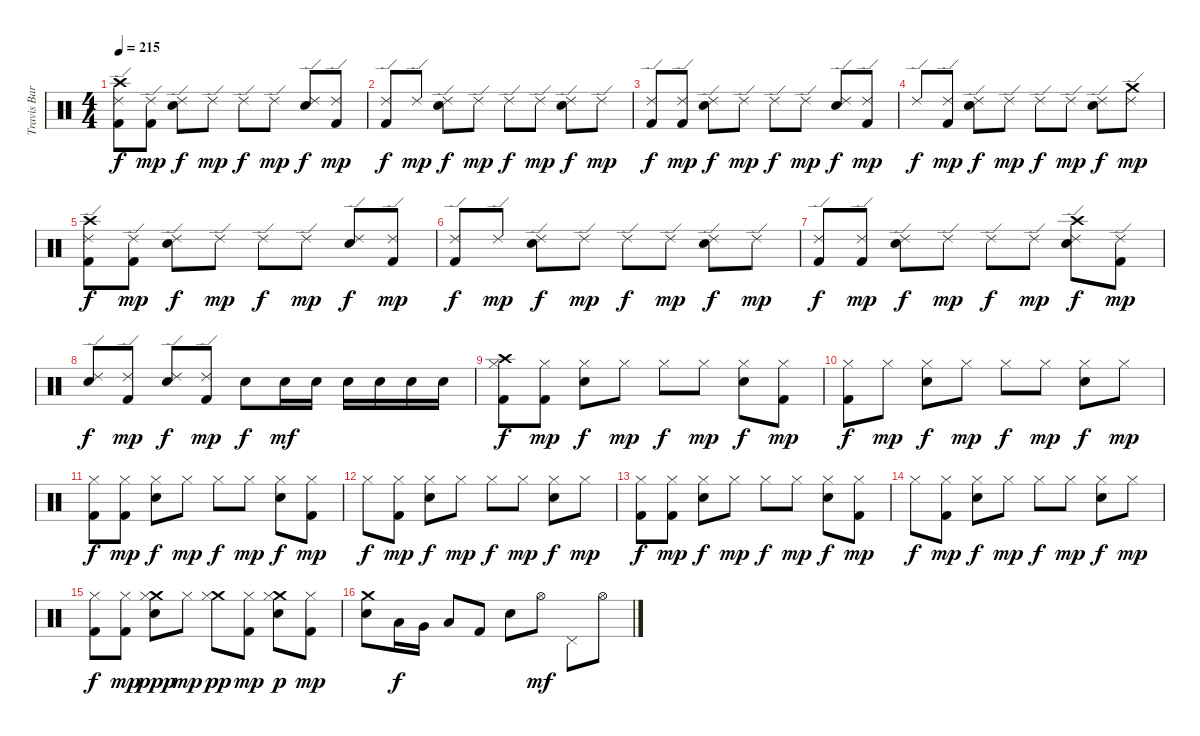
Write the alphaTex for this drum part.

\track ("Travis Barker" "Travis Bar") {instrument percussion}
\staff {score}
\articulation defaults
\ts (4 4)
\tempo 215
\clef neutral
\ks c
("Crash high (hit)" "Ride (edge) 2" "Kick (hit) 2").8{dy f} ("Ride (edge) 2" "Kick (hit) 2").8{dy mp} ("Ride (edge) 2" "Snare (hit) 2").8{dy f} "Ride (edge) 2".8{dy mp} "Ride (edge) 2".8{dy f} "Ride (edge) 2".8{dy mp} ("Ride (edge) 2" "Snare (hit) 2").8{dy f} ("Ride (edge) 2" "Kick (hit) 2").8{dy mp} |
("Ride (edge) 2" "Kick (hit) 2").8{dy f} "Ride (edge) 2".8{dy mp} ("Ride (edge) 2" "Snare (hit) 2").8{dy f} "Ride (edge) 2".8{dy mp} "Ride (edge) 2".8{dy f} "Ride (edge) 2".8{dy mp} ("Ride (edge) 2" "Snare (hit) 2").8{dy f} "Ride (edge) 2".8{dy mp} |
("Ride (edge) 2" "Kick (hit) 2").8{dy f} ("Ride (edge) 2" "Kick (hit) 2").8{dy mp} ("Ride (edge) 2" "Snare (hit) 2").8{dy f} "Ride (edge) 2".8{dy mp} "Ride (edge) 2".8{dy f} "Ride (edge) 2".8{dy mp} ("Ride (edge) 2" "Snare (hit) 2").8{dy f} ("Ride (edge) 2" "Kick (hit) 2").8{dy mp} |
"Ride (edge) 2".8{dy f} ("Ride (edge) 2" "Kick (hit) 2").8{dy mp} ("Ride (edge) 2" "Snare (hit) 2").8{dy f} "Ride (edge) 2".8{dy mp} "Ride (edge) 2".8{dy f} "Ride (edge) 2".8{dy mp} ("Ride (edge) 2" "Snare (hit) 2").8{dy f} ("Crash medium (hit)" "Ride (edge) 2").8{dy mp} |
("Crash high (hit)" "Ride (edge) 2" "Kick (hit) 2").8{dy f} ("Ride (edge) 2" "Kick (hit) 2").8{dy mp} ("Ride (edge) 2" "Snare (hit) 2").8{dy f} "Ride (edge) 2".8{dy mp} "Ride (edge) 2".8{dy f} "Ride (edge) 2".8{dy mp} ("Ride (edge) 2" "Snare (hit) 2").8{dy f} ("Ride (edge) 2" "Kick (hit) 2").8{dy mp} |
("Ride (edge) 2" "Kick (hit) 2").8{dy f} "Ride (edge) 2".8{dy mp} ("Ride (edge) 2" "Snare (hit) 2").8{dy f} "Ride (edge) 2".8{dy mp} "Ride (edge) 2".8{dy f} "Ride (edge) 2".8{dy mp} ("Ride (edge) 2" "Snare (hit) 2").8{dy f} "Ride (edge) 2".8{dy mp} |
("Ride (edge) 2" "Kick (hit) 2").8{dy f} ("Ride (edge) 2" "Kick (hit) 2").8{dy mp} ("Ride (edge) 2" "Snare (hit) 2").8{dy f} "Ride (edge) 2".8{dy mp} "Ride (edge) 2".8{dy f} "Ride (edge) 2".8{dy mp} ("Crash high (hit)" "Ride (edge) 2" "Snare (hit) 2").8{dy f} ("Ride (edge) 2" "Kick (hit) 2").8{dy mp} |
("Ride (edge) 2" "Snare (hit) 2").8{dy f} ("Ride (edge) 2" "Kick (hit) 2").8{dy mp} ("Ride (edge) 2" "Snare (hit) 2").8{dy f} ("Ride (edge) 2" "Kick (hit) 2").8{dy mp} "Snare (hit) 2".8{dy f} "Snare (hit) 2".16{dy mf} "Snare (hit) 2".16 "Snare (hit) 2".16 "Snare (hit) 2".16 "Snare (hit) 2".16 "Snare (hit) 2".16 |
("Crash high (hit)" "Hi-Hat (closed)" "Kick (hit) 2").8{dy f} ("Hi-Hat (closed)" "Kick (hit) 2").8{dy mp} ("Hi-Hat (closed)" "Snare (hit) 2").8{dy f} "Hi-Hat (closed)".8{dy mp} "Hi-Hat (closed)".8{dy f} "Hi-Hat (closed)".8{dy mp} ("Hi-Hat (closed)" "Snare (hit) 2").8{dy f} ("Hi-Hat (closed)" "Kick (hit) 2").8{dy mp} |
("Hi-Hat (closed)" "Kick (hit) 2").8{dy f} "Hi-Hat (closed)".8{dy mp} ("Hi-Hat (closed)" "Snare (hit) 2").8{dy f} "Hi-Hat (closed)".8{dy mp} "Hi-Hat (closed)".8{dy f} "Hi-Hat (closed)".8{dy mp} ("Hi-Hat (closed)" "Snare (hit) 2").8{dy f} "Hi-Hat (closed)".8{dy mp} |
("Hi-Hat (closed)" "Kick (hit) 2").8{dy f} ("Hi-Hat (closed)" "Kick (hit) 2").8{dy mp} ("Hi-Hat (closed)" "Snare (hit) 2").8{dy f} "Hi-Hat (closed)".8{dy mp} "Hi-Hat (closed)".8{dy f} "Hi-Hat (closed)".8{dy mp} ("Hi-Hat (closed)" "Snare (hit) 2").8{dy f} ("Hi-Hat (closed)" "Kick (hit) 2").8{dy mp} |
"Hi-Hat (closed)".8{dy f} ("Hi-Hat (closed)" "Kick (hit) 2").8{dy mp} ("Hi-Hat (closed)" "Snare (hit) 2").8{dy f} "Hi-Hat (closed)".8{dy mp} "Hi-Hat (closed)".8{dy f} "Hi-Hat (closed)".8{dy mp} ("Hi-Hat (closed)" "Snare (hit) 2").8{dy f} "Hi-Hat (closed)".8{dy mp} |
("Hi-Hat (closed)" "Kick (hit) 2").8{dy f} ("Hi-Hat (closed)" "Kick (hit) 2").8{dy mp} ("Hi-Hat (closed)" "Snare (hit) 2").8{dy f} "Hi-Hat (closed)".8{dy mp} "Hi-Hat (closed)".8{dy f} "Hi-Hat (closed)".8{dy mp} ("Hi-Hat (closed)" "Snare (hit) 2").8{dy f} ("Hi-Hat (closed)" "Kick (hit) 2").8{dy mp} |
"Hi-Hat (closed)".8{dy f} ("Hi-Hat (closed)" "Kick (hit) 2").8{dy mp} ("Hi-Hat (closed)" "Snare (hit) 2").8{dy f} "Hi-Hat (closed)".8{dy mp} "Hi-Hat (closed)".8{dy f} "Hi-Hat (closed)".8{dy mp} ("Hi-Hat (closed)" "Snare (hit) 2").8{dy f} "Hi-Hat (closed)".8{dy mp} |
("Hi-Hat (closed)" "Kick (hit) 2").8{dy f} ("Hi-Hat (closed)" "Kick (hit) 2").8{dy mp} ("Crash medium (hit)" "Hi-Hat (closed)" "Snare (hit) 2").8{dy ppp} "Hi-Hat (closed)".8{dy mp} ("Crash medium (hit)" "Hi-Hat (closed)").8{dy pp} ("Hi-Hat (closed)" "Kick (hit) 2").8{dy mp} ("Crash medium (hit)" "Hi-Hat (closed)" "Snare (hit) 2").8{dy p} ("Hi-Hat (closed)" "Kick (hit) 2").8{dy mp} |
("Crash medium (hit)" "Snare (hit) 2").8 "Low Tom (hit)".16{dy f} "Very Low Tom (hit)".16 "Low Floor Tom (hit)".8 "Kick (hit) 2".8 "Snare (hit) 2".8 "Hi-Hat (open)".8{dy mf} "Pedal Hi-Hat (hit)".8 "Hi-Hat (open)".8
